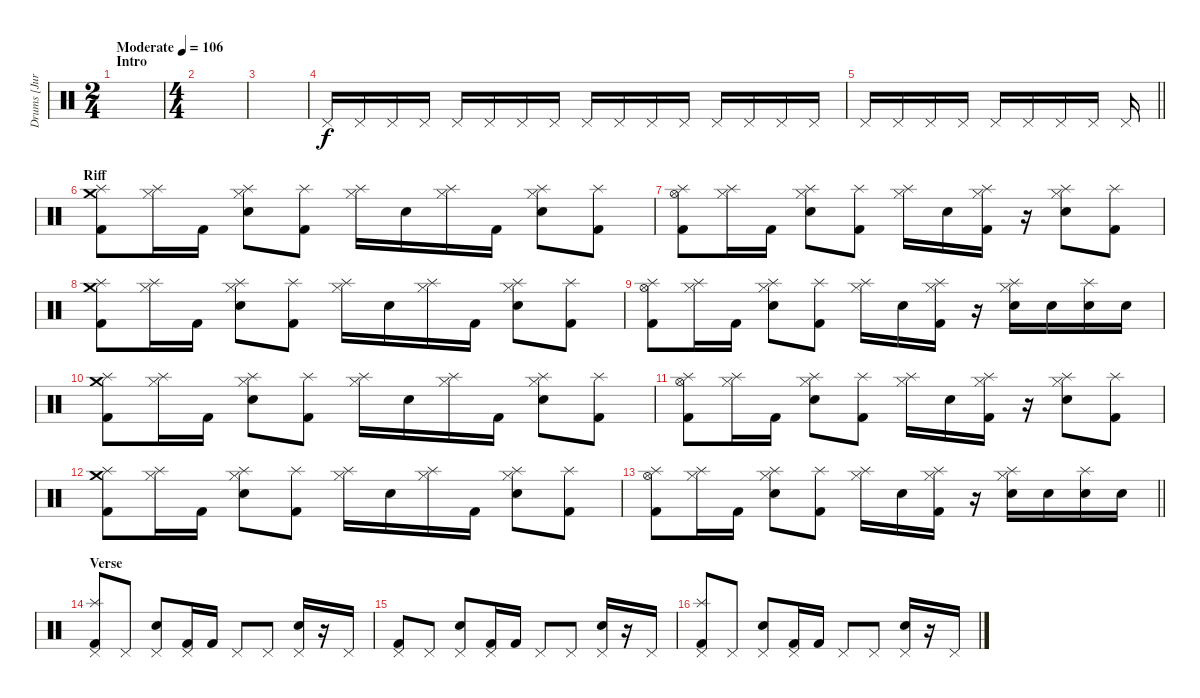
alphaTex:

\track ("Drums [Juri]" "Drums [Jur") {instrument percussion}
\staff {score}
\articulation defaults
\ts (2 4)
\section ("" "Intro")
\tempo (106 "Moderate")
\clef neutral
\ks c
|
\ts (4 4)
|
|
"Pedal Hi-Hat (hit)".16 "Pedal Hi-Hat (hit)".16 "Pedal Hi-Hat (hit)".16 "Pedal Hi-Hat (hit)".16 "Pedal Hi-Hat (hit)".16 "Pedal Hi-Hat (hit)".16 "Pedal Hi-Hat (hit)".16 "Pedal Hi-Hat (hit)".16 "Pedal Hi-Hat (hit)".16 "Pedal Hi-Hat (hit)".16 "Pedal Hi-Hat (hit)".16 "Pedal Hi-Hat (hit)".16 "Pedal Hi-Hat (hit)".16 "Pedal Hi-Hat (hit)".16 "Pedal Hi-Hat (hit)".16 "Pedal Hi-Hat (hit)".16 |
\barLineRight lightlight "Pedal Hi-Hat (hit)".16 "Pedal Hi-Hat (hit)".16 "Pedal Hi-Hat (hit)".16 "Pedal Hi-Hat (hit)".16 "Pedal Hi-Hat (hit)".16 "Pedal Hi-Hat (hit)".16 "Pedal Hi-Hat (hit)".16 "Pedal Hi-Hat (hit)".16 "Pedal Hi-Hat (hit)".16
|
\section ("" "Riff")
("Crash medium (hit)" "Splash (hit)" "Kick (hit) 2").8{dy f} ("Splash (hit)" "Hi-Hat (closed)").16 "Kick (hit) 2".16 ("Splash (hit)" "Hi-Hat (closed)" "Electric Snare (hit)").8 ("Splash (hit)" "Kick (hit) 2").8 ("Splash (hit)" "Hi-Hat (closed)").16 "Electric Snare (hit)".16 ("Splash (hit)" "Hi-Hat (closed)").16 "Kick (hit) 2".16 ("Splash (hit)" "Hi-Hat (closed)" "Electric Snare (hit)").8 ("Splash (hit)" "Kick (hit) 2").8 |
("Splash (hit)" "Hi-Hat (open)" "Kick (hit) 2").8 ("Splash (hit)" "Hi-Hat (closed)").16 "Kick (hit) 2".16 ("Splash (hit)" "Hi-Hat (closed)" "Electric Snare (hit)").8 ("Splash (hit)" "Kick (hit) 2").8 ("Splash (hit)" "Hi-Hat (closed)").16 "Electric Snare (hit)".16 ("Splash (hit)" "Hi-Hat (closed)" "Kick (hit) 2").16 r.16 ("Splash (hit)" "Hi-Hat (closed)" "Electric Snare (hit)").8 ("Splash (hit)" "Kick (hit) 2").8 |
("Crash medium (hit)" "Splash (hit)" "Kick (hit) 2").8 ("Splash (hit)" "Hi-Hat (closed)").16 "Kick (hit) 2".16 ("Splash (hit)" "Hi-Hat (closed)" "Electric Snare (hit)").8 ("Splash (hit)" "Kick (hit) 2").8 ("Splash (hit)" "Hi-Hat (closed)").16 "Electric Snare (hit)".16 ("Splash (hit)" "Hi-Hat (closed)").16 "Kick (hit) 2".16 ("Splash (hit)" "Hi-Hat (closed)" "Electric Snare (hit)").8 ("Splash (hit)" "Kick (hit) 2").8 |
("Splash (hit)" "Hi-Hat (open)" "Kick (hit) 2").8 ("Splash (hit)" "Hi-Hat (closed)").16 "Kick (hit) 2".16 ("Splash (hit)" "Hi-Hat (closed)" "Electric Snare (hit)").8 ("Splash (hit)" "Kick (hit) 2").8 ("Splash (hit)" "Hi-Hat (closed)").16 "Electric Snare (hit)".16 ("Splash (hit)" "Hi-Hat (closed)" "Kick (hit) 2").16 r.16 ("Splash (hit)" "Hi-Hat (closed)" "Electric Snare (hit)").16 "Electric Snare (hit)".16 ("Splash (hit)" "Electric Snare (hit)").16 "Electric Snare (hit)".16 |
("Crash medium (hit)" "Splash (hit)" "Kick (hit) 2").8 ("Splash (hit)" "Hi-Hat (closed)").16 "Kick (hit) 2".16 ("Splash (hit)" "Hi-Hat (closed)" "Electric Snare (hit)").8 ("Splash (hit)" "Kick (hit) 2").8 ("Splash (hit)" "Hi-Hat (closed)").16 "Electric Snare (hit)".16 ("Splash (hit)" "Hi-Hat (closed)").16 "Kick (hit) 2".16 ("Splash (hit)" "Hi-Hat (closed)" "Electric Snare (hit)").8 ("Splash (hit)" "Kick (hit) 2").8 |
("Splash (hit)" "Hi-Hat (open)" "Kick (hit) 2").8 ("Splash (hit)" "Hi-Hat (closed)").16 "Kick (hit) 2".16 ("Splash (hit)" "Hi-Hat (closed)" "Electric Snare (hit)").8 ("Splash (hit)" "Kick (hit) 2").8 ("Splash (hit)" "Hi-Hat (closed)").16 "Electric Snare (hit)".16 ("Splash (hit)" "Hi-Hat (closed)" "Kick (hit) 2").16 r.16 ("Splash (hit)" "Hi-Hat (closed)" "Electric Snare (hit)").8 ("Splash (hit)" "Kick (hit) 2").8 |
("Crash medium (hit)" "Splash (hit)" "Kick (hit) 2").8 ("Splash (hit)" "Hi-Hat (closed)").16 "Kick (hit) 2".16 ("Splash (hit)" "Hi-Hat (closed)" "Electric Snare (hit)").8 ("Splash (hit)" "Kick (hit) 2").8 ("Splash (hit)" "Hi-Hat (closed)").16 "Electric Snare (hit)".16 ("Splash (hit)" "Hi-Hat (closed)").16 "Kick (hit) 2".16 ("Splash (hit)" "Hi-Hat (closed)" "Electric Snare (hit)").8 ("Splash (hit)" "Kick (hit) 2").8 |
\barLineRight lightlight
("Splash (hit)" "Hi-Hat (open)" "Kick (hit) 2").8 ("Splash (hit)" "Hi-Hat (closed)").16 "Kick (hit) 2".16 ("Splash (hit)" "Hi-Hat (closed)" "Electric Snare (hit)").8 ("Splash (hit)" "Kick (hit) 2").8 ("Splash (hit)" "Hi-Hat (closed)").16 "Electric Snare (hit)".16 ("Splash (hit)" "Hi-Hat (closed)" "Kick (hit) 2").16 r.16 ("Splash (hit)" "Hi-Hat (closed)" "Electric Snare (hit)").16 "Electric Snare (hit)".16 ("Splash (hit)" "Electric Snare (hit)").16 "Electric Snare (hit)".16 |
\section ("" "Verse")
("Pedal Hi-Hat (hit)" "Splash (hit)" "Kick (hit) 2").8 "Pedal Hi-Hat (hit)".8 ("Pedal Hi-Hat (hit)" "Electric Snare (hit)").8 ("Pedal Hi-Hat (hit)" "Kick (hit) 2").16 "Kick (hit) 2".16 "Pedal Hi-Hat (hit)".8 "Pedal Hi-Hat (hit)".8 ("Pedal Hi-Hat (hit)" "Electric Snare (hit)").16 r.16 "Pedal Hi-Hat (hit)".16 |
("Pedal Hi-Hat (hit)" "Kick (hit) 2").8 "Pedal Hi-Hat (hit)".8 ("Pedal Hi-Hat (hit)" "Electric Snare (hit)").8 ("Pedal Hi-Hat (hit)" "Kick (hit) 2").16 "Kick (hit) 2".16 "Pedal Hi-Hat (hit)".8 "Pedal Hi-Hat (hit)".8 ("Pedal Hi-Hat (hit)" "Electric Snare (hit)").16 r.16 "Pedal Hi-Hat (hit)".16 |
("Pedal Hi-Hat (hit)" "Splash (hit)" "Kick (hit) 2").8 "Pedal Hi-Hat (hit)".8 ("Pedal Hi-Hat (hit)" "Electric Snare (hit)").8 ("Pedal Hi-Hat (hit)" "Kick (hit) 2").16 "Kick (hit) 2".16 "Pedal Hi-Hat (hit)".8 "Pedal Hi-Hat (hit)".8 ("Pedal Hi-Hat (hit)" "Electric Snare (hit)").16 r.16 "Pedal Hi-Hat (hit)".16
